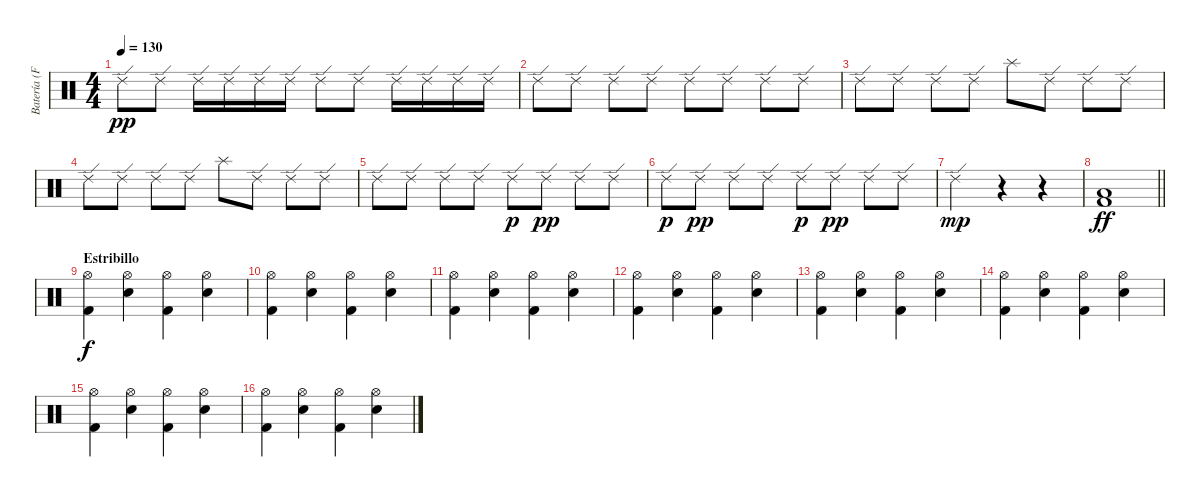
\track ("Batería (F. Scarcella)" "Batería (F") {instrument percussion}
\staff {score}
\articulation defaults
\ts (4 4)
\tempo 130
\clef neutral
\ks c "Ride (edge) 2".8{dy pp} "Ride (edge) 2".8 "Ride (edge) 2".16 "Ride (edge) 2".16 "Ride (edge) 2".16 "Ride (edge) 2".16 "Ride (edge) 2".8 "Ride (edge) 2".8 "Ride (edge) 2".16 "Ride (edge) 2".16 "Ride (edge) 2".16 "Ride (edge) 2".16
|
"Ride (edge) 2".8 "Ride (edge) 2".8 "Ride (edge) 2".8 "Ride (edge) 2".8 "Ride (edge) 2".8 "Ride (edge) 2".8 "Ride (edge) 2".8 "Ride (edge) 2".8 |
"Ride (edge) 2".8 "Ride (edge) 2".8 "Ride (edge) 2".8 "Ride (edge) 2".8 "Splash (hit)".8 "Ride (edge) 2".8 "Ride (edge) 2".8 "Ride (edge) 2".8 |
"Ride (edge) 2".8 "Ride (edge) 2".8 "Ride (edge) 2".8 "Ride (edge) 2".8 "Splash (hit)".8 "Ride (edge) 2".8 "Ride (edge) 2".8 "Ride (edge) 2".8 |
"Ride (edge) 2".8 "Ride (edge) 2".8 "Ride (edge) 2".8 "Ride (edge) 2".8 "Ride (edge) 2".8{dy p} "Ride (edge) 2".8{dy pp} "Ride (edge) 2".8 "Ride (edge) 2".8 |
"Ride (edge) 2".8{dy p} "Ride (edge) 2".8{dy pp} "Ride (edge) 2".8 "Ride (edge) 2".8 "Ride (edge) 2".8{dy p} "Ride (edge) 2".8{dy pp} "Ride (edge) 2".8 "Ride (edge) 2".8 |
"Ride (edge) 2".2{dy mp} r.4 r.4 |
\barLineRight lightlight
("Low Floor Tom (hit)" "Kick (hit) 2").1{dy ff} |
\section ("" "Estribillo")
("Kick (hit) 2" "Hi-Hat (open)").4{dy f} ("Snare (hit) 2" "Hi-Hat (open)").4 ("Kick (hit) 2" "Hi-Hat (open)").4 ("Snare (hit) 2" "Hi-Hat (open)").4 |
("Kick (hit) 2" "Hi-Hat (open)").4 ("Snare (hit) 2" "Hi-Hat (open)").4 ("Kick (hit) 2" "Hi-Hat (open)").4 ("Snare (hit) 2" "Hi-Hat (open)").4 |
("Kick (hit) 2" "Hi-Hat (open)").4 ("Snare (hit) 2" "Hi-Hat (open)").4 ("Kick (hit) 2" "Hi-Hat (open)").4 ("Snare (hit) 2" "Hi-Hat (open)").4 |
("Kick (hit) 2" "Hi-Hat (open)").4 ("Snare (hit) 2" "Hi-Hat (open)").4 ("Kick (hit) 2" "Hi-Hat (open)").4 ("Snare (hit) 2" "Hi-Hat (open)").4 |
("Kick (hit) 2" "Hi-Hat (open)").4 ("Snare (hit) 2" "Hi-Hat (open)").4 ("Kick (hit) 2" "Hi-Hat (open)").4 ("Snare (hit) 2" "Hi-Hat (open)").4 |
("Kick (hit) 2" "Hi-Hat (open)").4 ("Snare (hit) 2" "Hi-Hat (open)").4 ("Kick (hit) 2" "Hi-Hat (open)").4 ("Snare (hit) 2" "Hi-Hat (open)").4 |
("Kick (hit) 2" "Hi-Hat (open)").4 ("Snare (hit) 2" "Hi-Hat (open)").4 ("Kick (hit) 2" "Hi-Hat (open)").4 ("Snare (hit) 2" "Hi-Hat (open)").4 |
("Kick (hit) 2" "Hi-Hat (open)").4 ("Snare (hit) 2" "Hi-Hat (open)").4 ("Kick (hit) 2" "Hi-Hat (open)").4 ("Snare (hit) 2" "Hi-Hat (open)").4
